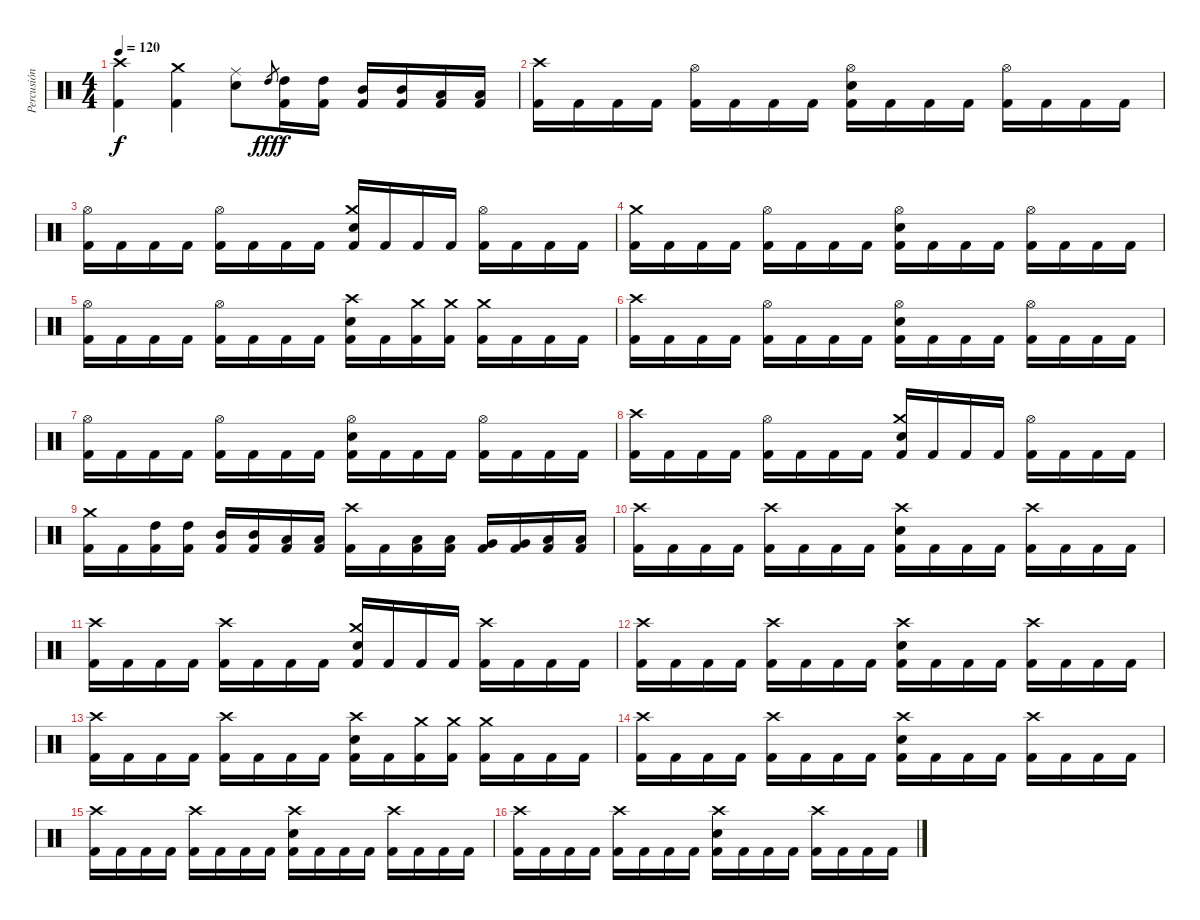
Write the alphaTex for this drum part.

\track ("Percusión" "Percusión") {instrument percussion}
\staff {score}
\articulation defaults
\ts (4 4)
\tempo 120
\clef neutral
\ks c
("Crash high (hit)" "Kick (hit) 2").4{dy f} ("Crash medium (hit)" "Kick (hit) 2").4 ("Ride (middle)" "Electric Snare (hit)").8 "High Tom (hit)".8{gr dy fff} ("High Tom (hit)" "Kick (hit) 2").16{dy f} ("High Tom (hit)" "Kick (hit) 2").16 ("Mid Tom (hit)" "Kick (hit) 2").16 ("Mid Tom (hit)" "Kick (hit) 2").16 ("Low Tom (hit)" "Kick (hit) 2").16 ("Low Tom (hit)" "Kick (hit) 2").16 |
("Crash high (hit)" "Kick (hit) 2").16 "Kick (hit) 2".16 "Kick (hit) 2".16 "Kick (hit) 2".16 ("Hi-Hat (open)" "Kick (hit) 2").16 "Kick (hit) 2".16 "Kick (hit) 2".16 "Kick (hit) 2".16 ("Hi-Hat (open)" "Electric Snare (hit)" "Kick (hit) 2").16 "Kick (hit) 2".16 "Kick (hit) 2".16 "Kick (hit) 2".16 ("Hi-Hat (open)" "Kick (hit) 2").16 "Kick (hit) 2".16 "Kick (hit) 2".16 "Kick (hit) 2".16 |
("Hi-Hat (open)" "Kick (hit) 2").16 "Kick (hit) 2".16 "Kick (hit) 2".16 "Kick (hit) 2".16 ("Hi-Hat (open)" "Kick (hit) 2").16 "Kick (hit) 2".16 "Kick (hit) 2".16 "Kick (hit) 2".16 ("Crash medium (hit)" "Electric Snare (hit)" "Kick (hit) 2").16 "Kick (hit) 2".16 "Kick (hit) 2".16 "Kick (hit) 2".16 ("Hi-Hat (open)" "Kick (hit) 2").16 "Kick (hit) 2".16 "Kick (hit) 2".16 "Kick (hit) 2".16 |
("Crash medium (hit)" "Kick (hit) 2").16 "Kick (hit) 2".16 "Kick (hit) 2".16 "Kick (hit) 2".16 ("Hi-Hat (open)" "Kick (hit) 2").16 "Kick (hit) 2".16 "Kick (hit) 2".16 "Kick (hit) 2".16 ("Hi-Hat (open)" "Electric Snare (hit)" "Kick (hit) 2").16 "Kick (hit) 2".16 "Kick (hit) 2".16 "Kick (hit) 2".16 ("Hi-Hat (open)" "Kick (hit) 2").16 "Kick (hit) 2".16 "Kick (hit) 2".16 "Kick (hit) 2".16 |
("Hi-Hat (open)" "Kick (hit) 2").16 "Kick (hit) 2".16 "Kick (hit) 2".16 "Kick (hit) 2".16 ("Hi-Hat (open)" "Kick (hit) 2").16 "Kick (hit) 2".16 "Kick (hit) 2".16 "Kick (hit) 2".16 ("Crash high (hit)" "Electric Snare (hit)" "Kick (hit) 2").16 "Kick (hit) 2".16 ("Crash medium (hit)" "Kick (hit) 2").16 ("Crash medium (hit)" "Kick (hit) 2").16 ("Crash medium (hit)" "Kick (hit) 2").16 "Kick (hit) 2".16 "Kick (hit) 2".16 "Kick (hit) 2".16 |
("Crash high (hit)" "Kick (hit) 2").16 "Kick (hit) 2".16 "Kick (hit) 2".16 "Kick (hit) 2".16 ("Hi-Hat (open)" "Kick (hit) 2").16 "Kick (hit) 2".16 "Kick (hit) 2".16 "Kick (hit) 2".16 ("Hi-Hat (open)" "Electric Snare (hit)" "Kick (hit) 2").16 "Kick (hit) 2".16 "Kick (hit) 2".16 "Kick (hit) 2".16 ("Hi-Hat (open)" "Kick (hit) 2").16 "Kick (hit) 2".16 "Kick (hit) 2".16 "Kick (hit) 2".16 |
("Hi-Hat (open)" "Kick (hit) 2").16 "Kick (hit) 2".16 "Kick (hit) 2".16 "Kick (hit) 2".16 ("Hi-Hat (open)" "Kick (hit) 2").16 "Kick (hit) 2".16 "Kick (hit) 2".16 "Kick (hit) 2".16 ("Hi-Hat (open)" "Electric Snare (hit)" "Kick (hit) 2").16 "Kick (hit) 2".16 "Kick (hit) 2".16 "Kick (hit) 2".16 ("Hi-Hat (open)" "Kick (hit) 2").16 "Kick (hit) 2".16 "Kick (hit) 2".16 "Kick (hit) 2".16 |
("Crash high (hit)" "Kick (hit) 2").16 "Kick (hit) 2".16 "Kick (hit) 2".16 "Kick (hit) 2".16 ("Hi-Hat (open)" "Kick (hit) 2").16 "Kick (hit) 2".16 "Kick (hit) 2".16 "Kick (hit) 2".16 ("Crash medium (hit)" "Electric Snare (hit)" "Kick (hit) 2").16 "Kick (hit) 2".16 "Kick (hit) 2".16 "Kick (hit) 2".16 ("Hi-Hat (open)" "Kick (hit) 2").16 "Kick (hit) 2".16 "Kick (hit) 2".16 "Kick (hit) 2".16 |
("Crash medium (hit)" "Kick (hit) 2").16 "Kick (hit) 2".16 ("High Tom (hit)" "Kick (hit) 2").16 ("High Tom (hit)" "Kick (hit) 2").16 ("Mid Tom (hit)" "Kick (hit) 2").16 ("Mid Tom (hit)" "Kick (hit) 2").16 ("Low Tom (hit)" "Kick (hit) 2").16 ("Low Tom (hit)" "Kick (hit) 2").16 ("Crash high (hit)" "Kick (hit) 2").16 "Kick (hit) 2".16 ("Low Tom (hit)" "Kick (hit) 2").16 ("Low Tom (hit)" "Kick (hit) 2").16 ("Very Low Tom (hit)" "Kick (hit) 2").16 ("Very Low Tom (hit)" "Kick (hit) 2").16 ("Low Floor Tom (hit)" "Kick (hit) 2").16 ("Low Floor Tom (hit)" "Kick (hit) 2").16 |
("Crash high (hit)" "Kick (hit) 2").16 "Kick (hit) 2".16 "Kick (hit) 2".16 "Kick (hit) 2".16 ("Crash high (hit)" "Kick (hit) 2").16 "Kick (hit) 2".16 "Kick (hit) 2".16 "Kick (hit) 2".16 ("Crash high (hit)" "Electric Snare (hit)" "Kick (hit) 2").16 "Kick (hit) 2".16 "Kick (hit) 2".16 "Kick (hit) 2".16 ("Crash high (hit)" "Kick (hit) 2").16 "Kick (hit) 2".16 "Kick (hit) 2".16 "Kick (hit) 2".16 |
("Crash high (hit)" "Kick (hit) 2").16 "Kick (hit) 2".16 "Kick (hit) 2".16 "Kick (hit) 2".16 ("Crash high (hit)" "Kick (hit) 2").16 "Kick (hit) 2".16 "Kick (hit) 2".16 "Kick (hit) 2".16 ("Crash medium (hit)" "Electric Snare (hit)" "Kick (hit) 2").16 "Kick (hit) 2".16 "Kick (hit) 2".16 "Kick (hit) 2".16 ("Crash high (hit)" "Kick (hit) 2").16 "Kick (hit) 2".16 "Kick (hit) 2".16 "Kick (hit) 2".16 |
("Crash high (hit)" "Kick (hit) 2").16 "Kick (hit) 2".16 "Kick (hit) 2".16 "Kick (hit) 2".16 ("Crash high (hit)" "Kick (hit) 2").16 "Kick (hit) 2".16 "Kick (hit) 2".16 "Kick (hit) 2".16 ("Crash high (hit)" "Electric Snare (hit)" "Kick (hit) 2").16 "Kick (hit) 2".16 "Kick (hit) 2".16 "Kick (hit) 2".16 ("Crash high (hit)" "Kick (hit) 2").16 "Kick (hit) 2".16 "Kick (hit) 2".16 "Kick (hit) 2".16 |
("Crash high (hit)" "Kick (hit) 2").16 "Kick (hit) 2".16 "Kick (hit) 2".16 "Kick (hit) 2".16 ("Crash high (hit)" "Kick (hit) 2").16 "Kick (hit) 2".16 "Kick (hit) 2".16 "Kick (hit) 2".16 ("Crash high (hit)" "Electric Snare (hit)" "Kick (hit) 2").16 "Kick (hit) 2".16 ("Crash medium (hit)" "Kick (hit) 2").16 ("Crash medium (hit)" "Kick (hit) 2").16 ("Crash medium (hit)" "Kick (hit) 2").16 "Kick (hit) 2".16 "Kick (hit) 2".16 "Kick (hit) 2".16 |
("Crash high (hit)" "Kick (hit) 2").16 "Kick (hit) 2".16 "Kick (hit) 2".16 "Kick (hit) 2".16 ("Crash high (hit)" "Kick (hit) 2").16 "Kick (hit) 2".16 "Kick (hit) 2".16 "Kick (hit) 2".16 ("Crash high (hit)" "Electric Snare (hit)" "Kick (hit) 2").16 "Kick (hit) 2".16 "Kick (hit) 2".16 "Kick (hit) 2".16 ("Crash high (hit)" "Kick (hit) 2").16 "Kick (hit) 2".16 "Kick (hit) 2".16 "Kick (hit) 2".16 |
("Crash high (hit)" "Kick (hit) 2").16 "Kick (hit) 2".16 "Kick (hit) 2".16 "Kick (hit) 2".16 ("Crash high (hit)" "Kick (hit) 2").16 "Kick (hit) 2".16 "Kick (hit) 2".16 "Kick (hit) 2".16 ("Crash high (hit)" "Electric Snare (hit)" "Kick (hit) 2").16 "Kick (hit) 2".16 "Kick (hit) 2".16 "Kick (hit) 2".16 ("Crash high (hit)" "Kick (hit) 2").16 "Kick (hit) 2".16 "Kick (hit) 2".16 "Kick (hit) 2".16 |
("Crash high (hit)" "Kick (hit) 2").16 "Kick (hit) 2".16 "Kick (hit) 2".16 "Kick (hit) 2".16 ("Crash high (hit)" "Kick (hit) 2").16 "Kick (hit) 2".16 "Kick (hit) 2".16 "Kick (hit) 2".16 ("Crash high (hit)" "Electric Snare (hit)" "Kick (hit) 2").16 "Kick (hit) 2".16 "Kick (hit) 2".16 "Kick (hit) 2".16 ("Crash high (hit)" "Kick (hit) 2").16 "Kick (hit) 2".16 "Kick (hit) 2".16 "Kick (hit) 2".16
